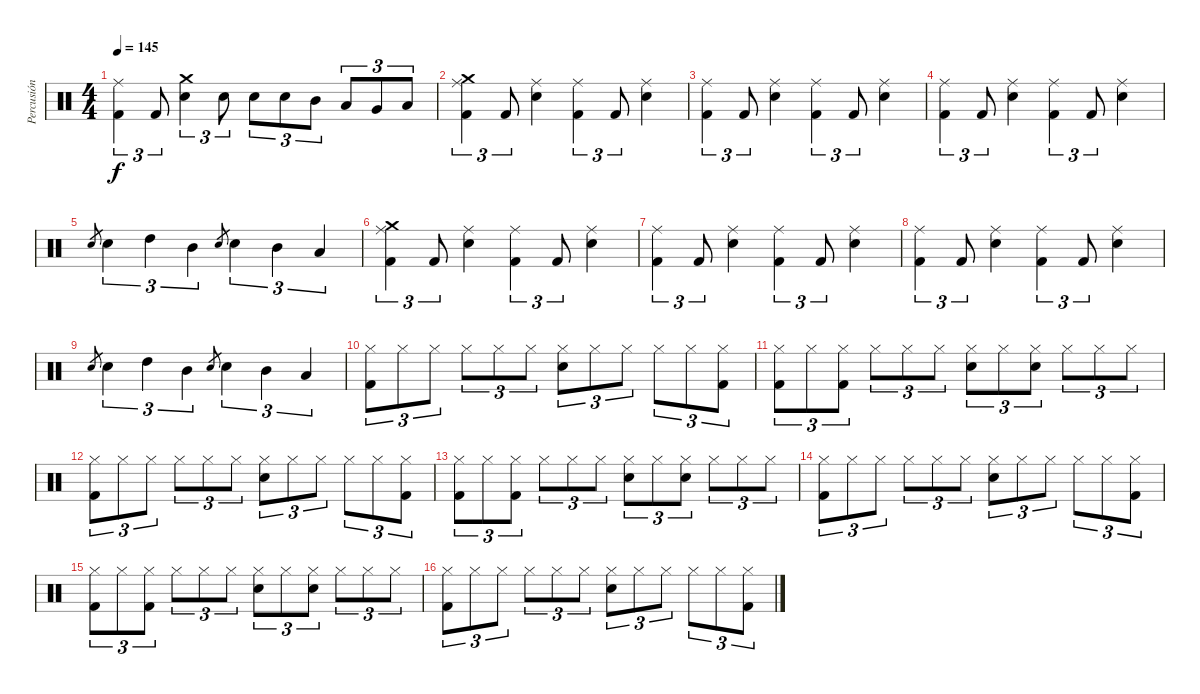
\track ("Percusión" "Percusión") {instrument percussion}
\staff {score}
\articulation defaults
\ts (4 4)
\tempo 145
\clef neutral
\ks c
("Kick (hit) 2" "Ride (middle)").4{tu (3 2) dy f} "Kick (hit) 2".8{tu (3 2)} ("Snare (hit) 2" "Crash medium (hit)").4{tu (3 2)} "Snare (hit) 2".8{tu (3 2)} "Snare (hit) 2".8{tu (3 2)} "Snare (hit) 2".8{tu (3 2)} "Mid Tom (hit)".8{tu (3 2)} "Low Tom (hit)".8{tu (3 2)} "Very Low Tom (hit)".8{tu (3 2)} "Low Floor Tom (hit)".8{tu (3 2)} |
("Kick (hit) 2" "Ride (middle)" "Crash medium (hit)").4{tu (3 2)} "Kick (hit) 2".8{tu (3 2)} ("Snare (hit) 2" "Ride (middle)").4 ("Kick (hit) 2" "Ride (middle)").4{tu (3 2)} "Kick (hit) 2".8{tu (3 2)} ("Snare (hit) 2" "Ride (middle)").4 |
("Kick (hit) 2" "Ride (middle)").4{tu (3 2)} "Kick (hit) 2".8{tu (3 2)} ("Snare (hit) 2" "Ride (middle)").4 ("Kick (hit) 2" "Ride (middle)").4{tu (3 2)} "Kick (hit) 2".8{tu (3 2)} ("Snare (hit) 2" "Ride (middle)").4 |
("Kick (hit) 2" "Ride (middle)").4{tu (3 2)} "Kick (hit) 2".8{tu (3 2)} ("Snare (hit) 2" "Ride (middle)").4 ("Kick (hit) 2" "Ride (middle)").4{tu (3 2)} "Kick (hit) 2".8{tu (3 2)} ("Snare (hit) 2" "Ride (middle)").4 |
"Snare (hit) 2".8{gr} "Snare (hit) 2".4{tu (3 2)} "High Tom (hit)".4{tu (3 2)} "Mid Tom (hit)".4{tu (3 2)} "Snare (hit) 2".8{gr} "Snare (hit) 2".4{tu (3 2)} "Mid Tom (hit)".4{tu (3 2)} "Low Tom (hit)".4{tu (3 2)} |
("Kick (hit) 2" "Ride (middle)" "Crash medium (hit)").4{tu (3 2)} "Kick (hit) 2".8{tu (3 2)} ("Snare (hit) 2" "Ride (middle)").4 ("Kick (hit) 2" "Ride (middle)").4{tu (3 2)} "Kick (hit) 2".8{tu (3 2)} ("Snare (hit) 2" "Ride (middle)").4 |
("Kick (hit) 2" "Ride (middle)").4{tu (3 2)} "Kick (hit) 2".8{tu (3 2)} ("Snare (hit) 2" "Ride (middle)").4 ("Kick (hit) 2" "Ride (middle)").4{tu (3 2)} "Kick (hit) 2".8{tu (3 2)} ("Snare (hit) 2" "Ride (middle)").4 |
("Kick (hit) 2" "Ride (middle)").4{tu (3 2)} "Kick (hit) 2".8{tu (3 2)} ("Snare (hit) 2" "Ride (middle)").4 ("Kick (hit) 2" "Ride (middle)").4{tu (3 2)} "Kick (hit) 2".8{tu (3 2)} ("Snare (hit) 2" "Ride (middle)").4 |
"Snare (hit) 2".8{gr} "Snare (hit) 2".4{tu (3 2)} "High Tom (hit)".4{tu (3 2)} "Mid Tom (hit)".4{tu (3 2)} "Snare (hit) 2".8{gr} "Snare (hit) 2".4{tu (3 2)} "Mid Tom (hit)".4{tu (3 2)} "Low Tom (hit)".4{tu (3 2)} |
("Hi-Hat (closed)" "Kick (hit) 2").8{tu (3 2)} "Hi-Hat (closed)".8{tu (3 2)} "Hi-Hat (closed)".8{tu (3 2)} "Hi-Hat (closed)".8{tu (3 2)} "Hi-Hat (closed)".8{tu (3 2)} "Hi-Hat (closed)".8{tu (3 2)} ("Hi-Hat (closed)" "Snare (hit) 2").8{tu (3 2)} "Hi-Hat (closed)".8{tu (3 2)} "Hi-Hat (closed)".8{tu (3 2)} "Hi-Hat (closed)".8{tu (3 2)} "Hi-Hat (closed)".8{tu (3 2)} ("Hi-Hat (closed)" "Kick (hit) 2").8{tu (3 2)} |
("Hi-Hat (closed)" "Kick (hit) 2").8{tu (3 2)} "Hi-Hat (closed)".8{tu (3 2)} ("Hi-Hat (closed)" "Kick (hit) 2").8{tu (3 2)} "Hi-Hat (closed)".8{tu (3 2)} "Hi-Hat (closed)".8{tu (3 2)} "Hi-Hat (closed)".8{tu (3 2)} ("Hi-Hat (closed)" "Snare (hit) 2").8{tu (3 2)} "Hi-Hat (closed)".8{tu (3 2)} ("Hi-Hat (closed)" "Snare (hit) 2").8{tu (3 2)} "Hi-Hat (closed)".8{tu (3 2)} "Hi-Hat (closed)".8{tu (3 2)} "Hi-Hat (closed)".8{tu (3 2)} |
("Hi-Hat (closed)" "Kick (hit) 2").8{tu (3 2)} "Hi-Hat (closed)".8{tu (3 2)} "Hi-Hat (closed)".8{tu (3 2)} "Hi-Hat (closed)".8{tu (3 2)} "Hi-Hat (closed)".8{tu (3 2)} "Hi-Hat (closed)".8{tu (3 2)} ("Hi-Hat (closed)" "Snare (hit) 2").8{tu (3 2)} "Hi-Hat (closed)".8{tu (3 2)} "Hi-Hat (closed)".8{tu (3 2)} "Hi-Hat (closed)".8{tu (3 2)} "Hi-Hat (closed)".8{tu (3 2)} ("Hi-Hat (closed)" "Kick (hit) 2").8{tu (3 2)} |
("Hi-Hat (closed)" "Kick (hit) 2").8{tu (3 2)} "Hi-Hat (closed)".8{tu (3 2)} ("Hi-Hat (closed)" "Kick (hit) 2").8{tu (3 2)} "Hi-Hat (closed)".8{tu (3 2)} "Hi-Hat (closed)".8{tu (3 2)} "Hi-Hat (closed)".8{tu (3 2)} ("Hi-Hat (closed)" "Snare (hit) 2").8{tu (3 2)} "Hi-Hat (closed)".8{tu (3 2)} ("Hi-Hat (closed)" "Snare (hit) 2").8{tu (3 2)} "Hi-Hat (closed)".8{tu (3 2)} "Hi-Hat (closed)".8{tu (3 2)} "Hi-Hat (closed)".8{tu (3 2)} |
("Hi-Hat (closed)" "Kick (hit) 2").8{tu (3 2)} "Hi-Hat (closed)".8{tu (3 2)} "Hi-Hat (closed)".8{tu (3 2)} "Hi-Hat (closed)".8{tu (3 2)} "Hi-Hat (closed)".8{tu (3 2)} "Hi-Hat (closed)".8{tu (3 2)} ("Hi-Hat (closed)" "Snare (hit) 2").8{tu (3 2)} "Hi-Hat (closed)".8{tu (3 2)} "Hi-Hat (closed)".8{tu (3 2)} "Hi-Hat (closed)".8{tu (3 2)} "Hi-Hat (closed)".8{tu (3 2)} ("Hi-Hat (closed)" "Kick (hit) 2").8{tu (3 2)} |
("Hi-Hat (closed)" "Kick (hit) 2").8{tu (3 2)} "Hi-Hat (closed)".8{tu (3 2)} ("Hi-Hat (closed)" "Kick (hit) 2").8{tu (3 2)} "Hi-Hat (closed)".8{tu (3 2)} "Hi-Hat (closed)".8{tu (3 2)} "Hi-Hat (closed)".8{tu (3 2)} ("Hi-Hat (closed)" "Snare (hit) 2").8{tu (3 2)} "Hi-Hat (closed)".8{tu (3 2)} ("Hi-Hat (closed)" "Snare (hit) 2").8{tu (3 2)} "Hi-Hat (closed)".8{tu (3 2)} "Hi-Hat (closed)".8{tu (3 2)} "Hi-Hat (closed)".8{tu (3 2)} |
("Hi-Hat (closed)" "Kick (hit) 2").8{tu (3 2)} "Hi-Hat (closed)".8{tu (3 2)} "Hi-Hat (closed)".8{tu (3 2)} "Hi-Hat (closed)".8{tu (3 2)} "Hi-Hat (closed)".8{tu (3 2)} "Hi-Hat (closed)".8{tu (3 2)} ("Hi-Hat (closed)" "Snare (hit) 2").8{tu (3 2)} "Hi-Hat (closed)".8{tu (3 2)} "Hi-Hat (closed)".8{tu (3 2)} "Hi-Hat (closed)".8{tu (3 2)} "Hi-Hat (closed)".8{tu (3 2)} ("Hi-Hat (closed)" "Kick (hit) 2").8{tu (3 2)}
